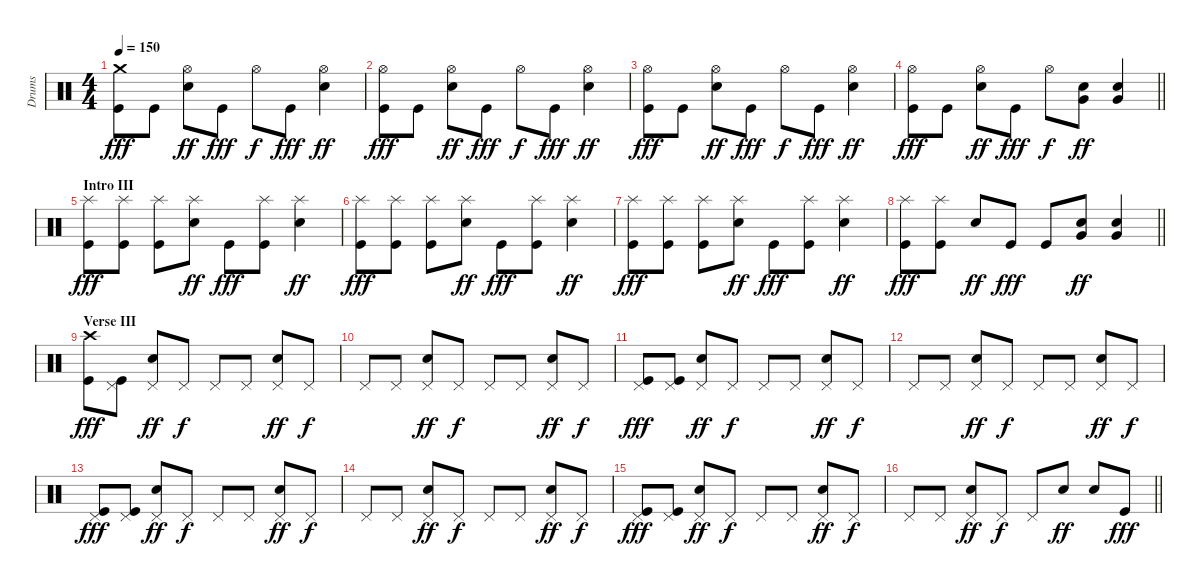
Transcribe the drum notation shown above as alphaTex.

\track ("Drums" "Drums") {instrument percussion}
\staff {score}
\articulation defaults
\ts (4 4)
\tempo 150
\clef neutral
\ks c
("Crash medium (hit)" "Kick (hit)").8{dy fff} "Kick (hit)".8 ("Hi-Hat (open)" "Snare (hit) 2").8{dy ff} "Kick (hit)".8{dy fff} "Hi-Hat (open)".8{dy f} "Kick (hit)".8{dy fff} ("Hi-Hat (open)" "Snare (hit) 2").4{dy ff} |
("Hi-Hat (open)" "Kick (hit)").8{dy fff} "Kick (hit)".8 ("Hi-Hat (open)" "Snare (hit) 2").8{dy ff} "Kick (hit)".8{dy fff} "Hi-Hat (open)".8{dy f} "Kick (hit)".8{dy fff} ("Hi-Hat (open)" "Snare (hit) 2").4{dy ff} |
("Hi-Hat (open)" "Kick (hit)").8{dy fff} "Kick (hit)".8 ("Hi-Hat (open)" "Snare (hit) 2").8{dy ff} "Kick (hit)".8{dy fff} "Hi-Hat (open)".8{dy f} "Kick (hit)".8{dy fff} ("Hi-Hat (open)" "Snare (hit) 2").4{dy ff} |
\barLineRight lightlight
("Hi-Hat (open)" "Kick (hit)").8{dy fff} "Kick (hit)".8 ("Hi-Hat (open)" "Snare (hit) 2").8{dy ff} "Kick (hit)".8{dy fff} "Hi-Hat (open)".8{dy f} ("Snare (hit) 2" "Very Low Tom (hit)").8{dy ff} ("Snare (hit) 2" "Very Low Tom (hit)").4 |
\section ("" "Intro III")
("Splash (hit)" "Kick (hit)").8{dy fff} ("Splash (hit)" "Kick (hit)").8 ("Splash (hit)" "Kick (hit)").8 ("Splash (hit)" "Snare (hit) 2").8{dy ff} "Kick (hit)".8{dy fff} ("Splash (hit)" "Kick (hit)").8 ("Splash (hit)" "Snare (hit) 2").4{dy ff} |
("Splash (hit)" "Kick (hit)").8{dy fff} ("Splash (hit)" "Kick (hit)").8 ("Splash (hit)" "Kick (hit)").8 ("Splash (hit)" "Snare (hit) 2").8{dy ff} "Kick (hit)".8{dy fff} ("Splash (hit)" "Kick (hit)").8 ("Splash (hit)" "Snare (hit) 2").4{dy ff} |
("Splash (hit)" "Kick (hit)").8{dy fff} ("Splash (hit)" "Kick (hit)").8 ("Splash (hit)" "Kick (hit)").8 ("Splash (hit)" "Snare (hit) 2").8{dy ff} "Kick (hit)".8{dy fff} ("Splash (hit)" "Kick (hit)").8 ("Splash (hit)" "Snare (hit) 2").4{dy ff} |
\barLineRight lightlight
("Splash (hit)" "Kick (hit)").8{dy fff} ("Splash (hit)" "Kick (hit)").8 "Snare (hit) 2".8{dy ff} "Kick (hit)".8{dy fff} "Kick (hit)".8 ("Snare (hit) 2" "Very Low Tom (hit)").8{dy ff} ("Snare (hit) 2" "Very Low Tom (hit)").4 |
\section ("" "Verse III")
("Crash high (hit)" "Kick (hit)").8{dy fff} ("Pedal Hi-Hat (hit)" "Kick (hit)").8 ("Pedal Hi-Hat (hit)" "Snare (hit) 2").8{dy ff} "Pedal Hi-Hat (hit)".8{dy f} "Pedal Hi-Hat (hit)".8 "Pedal Hi-Hat (hit)".8 ("Pedal Hi-Hat (hit)" "Snare (hit) 2").8{dy ff} "Pedal Hi-Hat (hit)".8{dy f} |
"Pedal Hi-Hat (hit)".8 "Pedal Hi-Hat (hit)".8 ("Pedal Hi-Hat (hit)" "Snare (hit) 2").8{dy ff} "Pedal Hi-Hat (hit)".8{dy f} "Pedal Hi-Hat (hit)".8 "Pedal Hi-Hat (hit)".8 ("Pedal Hi-Hat (hit)" "Snare (hit) 2").8{dy ff} "Pedal Hi-Hat (hit)".8{dy f} |
("Pedal Hi-Hat (hit)" "Kick (hit)").8{dy fff} ("Pedal Hi-Hat (hit)" "Kick (hit)").8 ("Pedal Hi-Hat (hit)" "Snare (hit) 2").8{dy ff} "Pedal Hi-Hat (hit)".8{dy f} "Pedal Hi-Hat (hit)".8 "Pedal Hi-Hat (hit)".8 ("Pedal Hi-Hat (hit)" "Snare (hit) 2").8{dy ff} "Pedal Hi-Hat (hit)".8{dy f} |
"Pedal Hi-Hat (hit)".8 "Pedal Hi-Hat (hit)".8 ("Pedal Hi-Hat (hit)" "Snare (hit) 2").8{dy ff} "Pedal Hi-Hat (hit)".8{dy f} "Pedal Hi-Hat (hit)".8 "Pedal Hi-Hat (hit)".8 ("Pedal Hi-Hat (hit)" "Snare (hit) 2").8{dy ff} "Pedal Hi-Hat (hit)".8{dy f} |
("Pedal Hi-Hat (hit)" "Kick (hit)").8{dy fff} ("Pedal Hi-Hat (hit)" "Kick (hit)").8 ("Pedal Hi-Hat (hit)" "Snare (hit) 2").8{dy ff} "Pedal Hi-Hat (hit)".8{dy f} "Pedal Hi-Hat (hit)".8 "Pedal Hi-Hat (hit)".8 ("Pedal Hi-Hat (hit)" "Snare (hit) 2").8{dy ff} "Pedal Hi-Hat (hit)".8{dy f} |
"Pedal Hi-Hat (hit)".8 "Pedal Hi-Hat (hit)".8 ("Pedal Hi-Hat (hit)" "Snare (hit) 2").8{dy ff} "Pedal Hi-Hat (hit)".8{dy f} "Pedal Hi-Hat (hit)".8 "Pedal Hi-Hat (hit)".8 ("Pedal Hi-Hat (hit)" "Snare (hit) 2").8{dy ff} "Pedal Hi-Hat (hit)".8{dy f} |
("Pedal Hi-Hat (hit)" "Kick (hit)").8{dy fff} ("Pedal Hi-Hat (hit)" "Kick (hit)").8 ("Pedal Hi-Hat (hit)" "Snare (hit) 2").8{dy ff} "Pedal Hi-Hat (hit)".8{dy f} "Pedal Hi-Hat (hit)".8 "Pedal Hi-Hat (hit)".8 ("Pedal Hi-Hat (hit)" "Snare (hit) 2").8{dy ff} "Pedal Hi-Hat (hit)".8{dy f} |
\barLineRight lightlight "Pedal Hi-Hat (hit)".8 "Pedal Hi-Hat (hit)".8
("Pedal Hi-Hat (hit)" "Snare (hit) 2").8{dy ff} "Pedal Hi-Hat (hit)".8{dy f} "Pedal Hi-Hat (hit)".8 "Snare (hit) 2".8{dy ff} "Snare (hit) 2".8 "Kick (hit)".8{dy fff}
